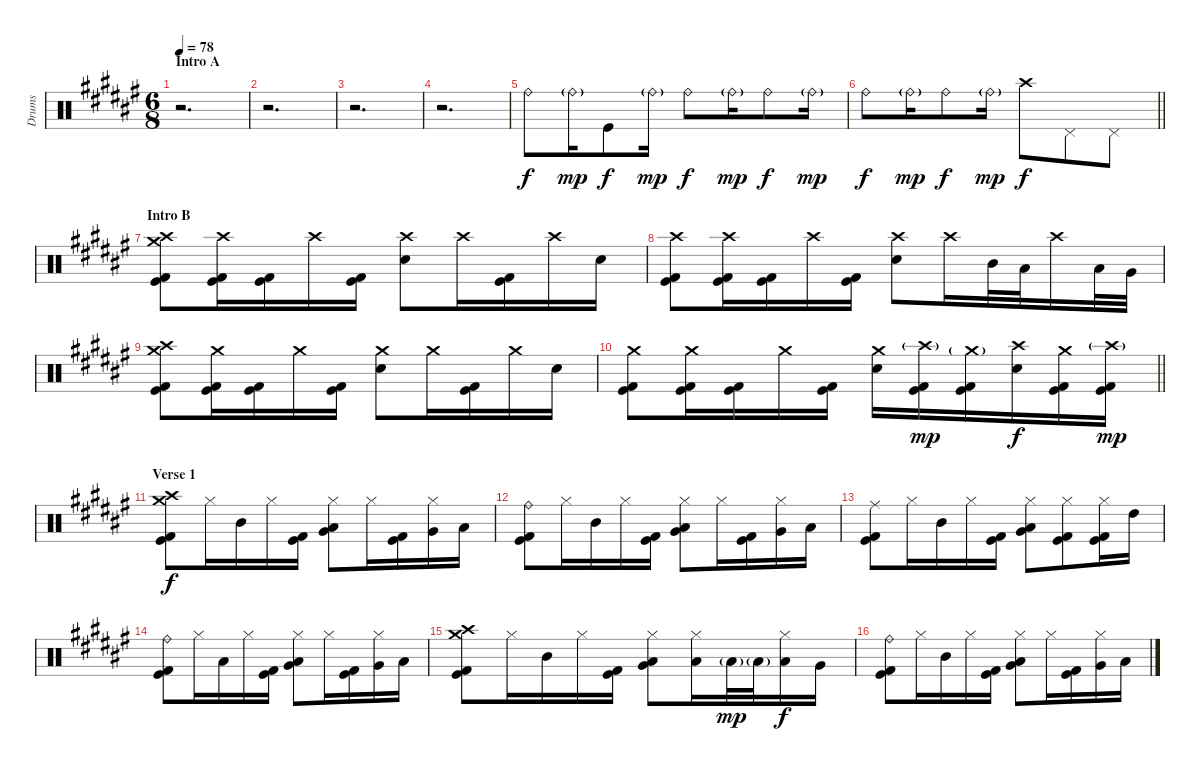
\track ("Drums" "Drums") {instrument percussion}
\staff {score}
\articulation defaults
\ts (6 8)
\section ("" "Intro A")
\tempo 78
\clef neutral
\ks d#minor
r.2{d dy f} |
r.2{d} |
r.2{d} |
r.2{d} |
"Ride (bell)".8 "Ride (bell)"{g}.16{dy mp} "Kick (hit)".8{dy f} "Ride (bell)"{g}.16{dy mp} "Ride (bell)".8{dy f} "Ride (bell)"{g}.16{dy mp} "Ride (bell)".8{dy f} "Ride (bell)"{g}.16{dy mp} |
\barLineRight lightlight "Ride (bell)".8{dy f} "Ride (bell)"{g}.16{dy mp} "Ride (bell)".8{dy f} "Ride (bell)"{g}.16{dy mp} "Crash high (hit)".8{dy f} "Pedal Hi-Hat (hit)".8 "Pedal Hi-Hat (hit)".8
|
\section ("" "Intro B")
("Crash medium (hit)" "Crash high (hit)" "Kick (hit)" "Kick (hit) 2").8 ("Crash high (hit)" "Kick (hit)" "Kick (hit) 2").16 ("Kick (hit)" "Kick (hit) 2").16 "Crash high (hit)".16 ("Kick (hit)" "Kick (hit) 2").16 ("Crash high (hit)" "Snare (hit) 2").8 "Crash high (hit)".16 ("Kick (hit)" "Kick (hit) 2").16 "Crash high (hit)".16 "Snare (hit) 2".16 |
("Crash high (hit)" "Kick (hit)" "Kick (hit) 2").8 ("Crash high (hit)" "Kick (hit)" "Kick (hit) 2").16 ("Kick (hit)" "Kick (hit) 2").16 "Crash high (hit)".16 ("Kick (hit)" "Kick (hit) 2").16 ("Crash high (hit)" "Snare (hit) 2").8 "Crash high (hit)".16 "Mid Tom (hit)".32 "Low Tom (hit)".32 "Crash high (hit)".16 "Low Tom (hit)".32 "Very Low Tom (hit)".32 |
("Crash medium (hit)" "Crash high (hit)" "Kick (hit)" "Kick (hit) 2").8 ("Crash medium (hit)" "Kick (hit)" "Kick (hit) 2").16 ("Kick (hit)" "Kick (hit) 2").16 "Crash medium (hit)".16 ("Kick (hit)" "Kick (hit) 2").16 ("Crash medium (hit)" "Snare (hit) 2").8 "Crash medium (hit)".16 ("Kick (hit)" "Kick (hit) 2").16 "Crash medium (hit)".16 "Snare (hit) 2".16 |
\barLineRight lightlight
("Crash medium (hit)" "Kick (hit)" "Kick (hit) 2").8 ("Crash medium (hit)" "Kick (hit)" "Kick (hit) 2").16 ("Kick (hit)" "Kick (hit) 2").16 "Crash medium (hit)".16 ("Kick (hit)" "Kick (hit) 2").16 ("Crash medium (hit)" "Snare (hit) 2").16 ("Crash high (hit)"{g} "Kick (hit)" "Kick (hit) 2").16{dy mp} ("Crash medium (hit)"{g} "Kick (hit)" "Kick (hit) 2").16 ("Crash high (hit)" "Snare (hit) 2").16{dy f} ("Crash medium (hit)" "Kick (hit)" "Kick (hit) 2").16 ("Crash high (hit)"{g} "Kick (hit)" "Kick (hit) 2").16{dy mp} |
\section ("" "Verse 1")
("Crash medium (hit)" "Crash high (hit)" "Kick (hit)" "Kick (hit) 2").8{dy f} "Hi-Hat (closed)".16 "Mid Tom (hit)".16 "Hi-Hat (closed)".16 ("Kick (hit)" "Kick (hit) 2").16 ("Hi-Hat (closed)" "Low Tom (hit)" "Very Low Tom (hit)").8 "Hi-Hat (closed)".16 ("Kick (hit)" "Kick (hit) 2").16 ("Hi-Hat (closed)" "Very Low Tom (hit)").16 "Low Floor Tom (hit)".16 |
("Ride (bell)" "Kick (hit)" "Kick (hit) 2").8 "Hi-Hat (closed)".16 "Mid Tom (hit)".16 "Hi-Hat (closed)".16 ("Kick (hit)" "Kick (hit) 2").16 ("Hi-Hat (closed)" "Low Tom (hit)" "Very Low Tom (hit)").8 "Hi-Hat (closed)".16 ("Kick (hit)" "Kick (hit) 2").16 ("Hi-Hat (closed)" "Very Low Tom (hit)").16 "Low Floor Tom (hit)".16 |
("Ride (middle)" "Kick (hit)" "Kick (hit) 2").8 "Hi-Hat (closed)".16 "Mid Tom (hit)".16 "Hi-Hat (closed)".16 ("Kick (hit)" "Kick (hit) 2").16 ("Hi-Hat (closed)" "Low Tom (hit)" "Very Low Tom (hit)").8 ("Hi-Hat (closed)" "Kick (hit)" "Kick (hit) 2").8 ("Hi-Hat (closed)" "Kick (hit)" "Kick (hit) 2").16 "High Tom (hit)".16 |
("Ride (bell)" "Kick (hit)" "Kick (hit) 2").8 "Hi-Hat (closed)".16 "Low Tom (hit)".16 "Hi-Hat (closed)".16 ("Kick (hit)" "Kick (hit) 2").16 ("Hi-Hat (closed)" "Low Tom (hit)" "Very Low Tom (hit)").8 "Hi-Hat (closed)".16 ("Kick (hit)" "Kick (hit) 2").16 ("Hi-Hat (closed)" "Very Low Tom (hit)").16 "Low Floor Tom (hit)".16 |
("Crash medium (hit)" "Crash high (hit)" "Kick (hit)" "Kick (hit) 2").8 "Hi-Hat (closed)".16 "Mid Tom (hit)".16 "Hi-Hat (closed)".16 ("Kick (hit)" "Kick (hit) 2").16 ("Hi-Hat (closed)" "Low Tom (hit)" "Very Low Tom (hit)").8 ("Hi-Hat (closed)" "Low Floor Tom (hit)").16 "Low Floor Tom (hit)"{g}.32{dy mp} "Low Floor Tom (hit)"{g}.32 ("Hi-Hat (closed)" "Low Floor Tom (hit)").16{dy f} "Very Low Tom (hit)".16 |
("Ride (bell)" "Kick (hit)" "Kick (hit) 2").8 "Hi-Hat (closed)".16 "Mid Tom (hit)".16 "Hi-Hat (closed)".16 ("Kick (hit)" "Kick (hit) 2").16 ("Hi-Hat (closed)" "Low Tom (hit)" "Very Low Tom (hit)").8 "Hi-Hat (closed)".16 ("Kick (hit)" "Kick (hit) 2").16 ("Hi-Hat (closed)" "Very Low Tom (hit)").16 "Low Floor Tom (hit)".16
